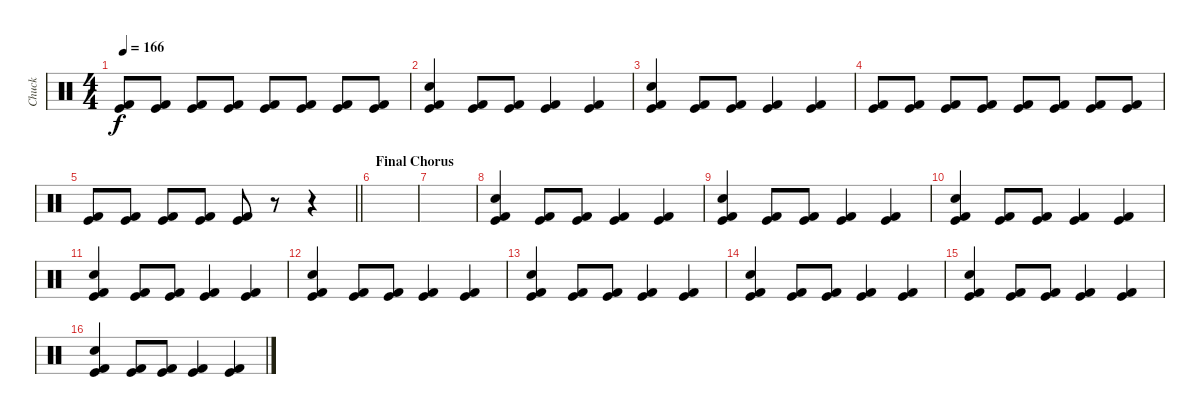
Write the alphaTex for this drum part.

\track ("Chuck" "Chuck") {instrument percussion}
\staff {score}
\articulation defaults
\ts (4 4)
\tempo 166
\clef neutral
\ks c
("Kick (hit)" "Kick (hit) 2").8{dy f} ("Kick (hit)" "Kick (hit) 2").8 ("Kick (hit)" "Kick (hit) 2").8 ("Kick (hit)" "Kick (hit) 2").8 ("Kick (hit)" "Kick (hit) 2").8 ("Kick (hit)" "Kick (hit) 2").8 ("Kick (hit)" "Kick (hit) 2").8 ("Kick (hit)" "Kick (hit) 2").8 |
("Kick (hit)" "Kick (hit) 2" "Electric Snare (hit)").4 ("Kick (hit)" "Kick (hit) 2").8 ("Kick (hit)" "Kick (hit) 2").8 ("Kick (hit)" "Kick (hit) 2").4 ("Kick (hit)" "Kick (hit) 2").4 |
("Kick (hit)" "Kick (hit) 2" "Electric Snare (hit)").4 ("Kick (hit)" "Kick (hit) 2").8 ("Kick (hit)" "Kick (hit) 2").8 ("Kick (hit)" "Kick (hit) 2").4 ("Kick (hit)" "Kick (hit) 2").4 |
("Kick (hit)" "Kick (hit) 2").8 ("Kick (hit)" "Kick (hit) 2").8 ("Kick (hit)" "Kick (hit) 2").8 ("Kick (hit)" "Kick (hit) 2").8 ("Kick (hit)" "Kick (hit) 2").8 ("Kick (hit)" "Kick (hit) 2").8 ("Kick (hit)" "Kick (hit) 2").8 ("Kick (hit)" "Kick (hit) 2").8 |
\barLineRight lightlight
("Kick (hit)" "Kick (hit) 2").8 ("Kick (hit)" "Kick (hit) 2").8 ("Kick (hit)" "Kick (hit) 2").8 ("Kick (hit)" "Kick (hit) 2").8 ("Kick (hit)" "Kick (hit) 2").8 r.8 r.4 |
\section ("" "Final Chorus")
|
|
("Kick (hit)" "Kick (hit) 2" "Electric Snare (hit)").4 ("Kick (hit)" "Kick (hit) 2").8 ("Kick (hit)" "Kick (hit) 2").8 ("Kick (hit)" "Kick (hit) 2").4 ("Kick (hit)" "Kick (hit) 2").4 |
("Kick (hit)" "Kick (hit) 2" "Electric Snare (hit)").4 ("Kick (hit)" "Kick (hit) 2").8 ("Kick (hit)" "Kick (hit) 2").8 ("Kick (hit)" "Kick (hit) 2").4 ("Kick (hit)" "Kick (hit) 2").4 |
("Kick (hit)" "Kick (hit) 2" "Electric Snare (hit)").4 ("Kick (hit)" "Kick (hit) 2").8 ("Kick (hit)" "Kick (hit) 2").8 ("Kick (hit)" "Kick (hit) 2").4 ("Kick (hit)" "Kick (hit) 2").4 |
("Kick (hit)" "Kick (hit) 2" "Electric Snare (hit)").4 ("Kick (hit)" "Kick (hit) 2").8 ("Kick (hit)" "Kick (hit) 2").8 ("Kick (hit)" "Kick (hit) 2").4 ("Kick (hit)" "Kick (hit) 2").4 |
("Kick (hit)" "Kick (hit) 2" "Electric Snare (hit)").4 ("Kick (hit)" "Kick (hit) 2").8 ("Kick (hit)" "Kick (hit) 2").8 ("Kick (hit)" "Kick (hit) 2").4 ("Kick (hit)" "Kick (hit) 2").4 |
("Kick (hit)" "Kick (hit) 2" "Electric Snare (hit)").4 ("Kick (hit)" "Kick (hit) 2").8 ("Kick (hit)" "Kick (hit) 2").8 ("Kick (hit)" "Kick (hit) 2").4 ("Kick (hit)" "Kick (hit) 2").4 |
("Kick (hit)" "Kick (hit) 2" "Electric Snare (hit)").4 ("Kick (hit)" "Kick (hit) 2").8 ("Kick (hit)" "Kick (hit) 2").8 ("Kick (hit)" "Kick (hit) 2").4 ("Kick (hit)" "Kick (hit) 2").4 |
("Kick (hit)" "Kick (hit) 2" "Electric Snare (hit)").4 ("Kick (hit)" "Kick (hit) 2").8 ("Kick (hit)" "Kick (hit) 2").8 ("Kick (hit)" "Kick (hit) 2").4 ("Kick (hit)" "Kick (hit) 2").4 |
("Kick (hit)" "Kick (hit) 2" "Electric Snare (hit)").4 ("Kick (hit)" "Kick (hit) 2").8 ("Kick (hit)" "Kick (hit) 2").8 ("Kick (hit)" "Kick (hit) 2").4 ("Kick (hit)" "Kick (hit) 2").4
